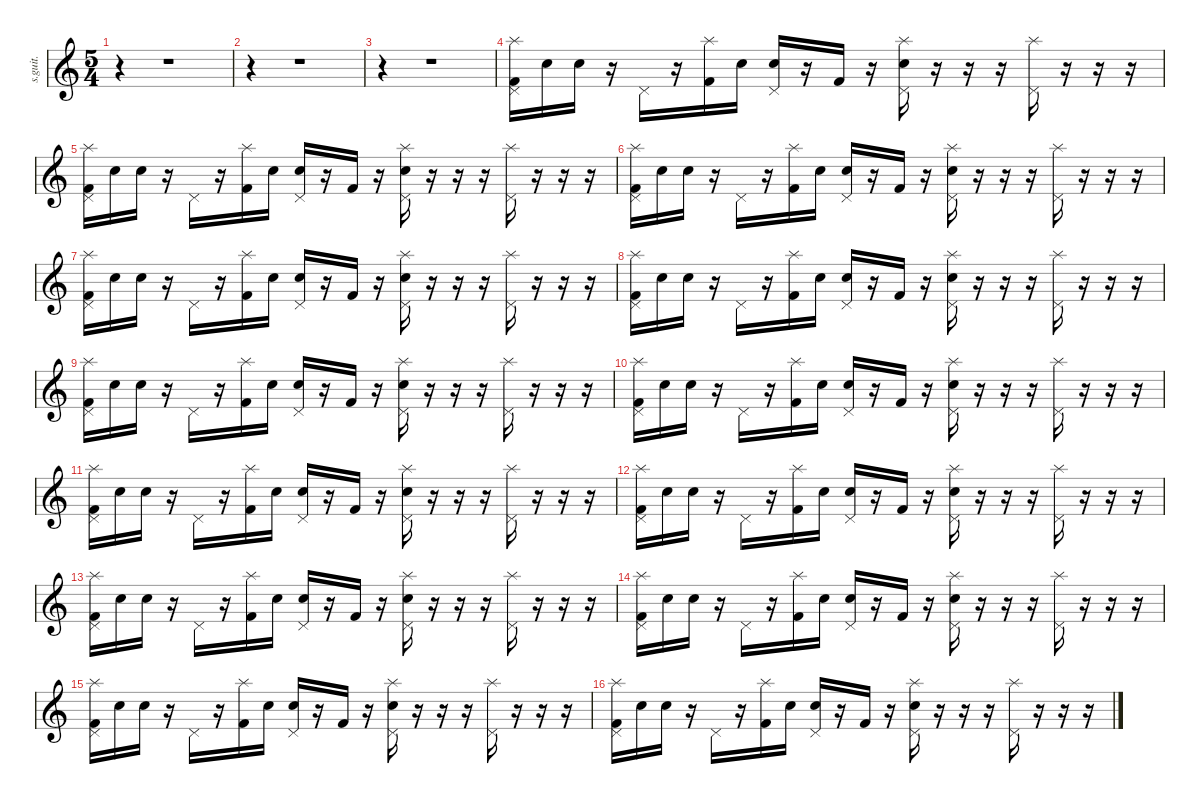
\defaultSystemsLayout 4
\hideDynamics
\bracketExtendMode nobrackets
\track ("Pete Riley" "s.guit.") {instrument percussion}
\staff {score}
\articulation defaults
\ts (5 4)
\tempo (152 hide)
\clef g2
\ks c
r.4{dy f} r.1 |
r.4 r.1 |
r.4 r.1 |
("Splash (hit)" "Pedal Hi-Hat (hit)" "Kick (hit) 2").16 "Snare (hit) 2".16{dy mp} "Snare (hit) 2".16{dy p} r.16 "Pedal Hi-Hat (hit)".16{dy mp} r.16 ("Splash (hit)" "Kick (hit) 2").16{dy f} "Snare (hit) 2".16{dy mp} ("Pedal Hi-Hat (hit)" "Snare (hit) 2").16 r.16 "Kick (hit) 2".16{dy mf} r.16 ("Splash (hit)" "Pedal Hi-Hat (hit)" "Snare (hit) 2").16{dy f} r.16 r.16 r.16 ("Splash (hit)" "Pedal Hi-Hat (hit)").16 r.16 r.16 r.16 |
("Splash (hit)" "Pedal Hi-Hat (hit)" "Kick (hit) 2").16 "Snare (hit) 2".16{dy mp} "Snare (hit) 2".16{dy p} r.16 "Pedal Hi-Hat (hit)".16{dy mp} r.16 ("Splash (hit)" "Kick (hit) 2").16{dy f} "Snare (hit) 2".16{dy mp} ("Pedal Hi-Hat (hit)" "Snare (hit) 2").16 r.16 "Kick (hit) 2".16{dy mf} r.16 ("Splash (hit)" "Pedal Hi-Hat (hit)" "Snare (hit) 2").16{dy f} r.16 r.16 r.16 ("Splash (hit)" "Pedal Hi-Hat (hit)").16 r.16 r.16 r.16 |
("Splash (hit)" "Pedal Hi-Hat (hit)" "Kick (hit) 2").16 "Snare (hit) 2".16{dy mp} "Snare (hit) 2".16{dy p} r.16 "Pedal Hi-Hat (hit)".16{dy mp} r.16 ("Splash (hit)" "Kick (hit) 2").16{dy f} "Snare (hit) 2".16{dy mp} ("Pedal Hi-Hat (hit)" "Snare (hit) 2").16 r.16 "Kick (hit) 2".16{dy mf} r.16 ("Splash (hit)" "Pedal Hi-Hat (hit)" "Snare (hit) 2").16{dy f} r.16 r.16 r.16 ("Splash (hit)" "Pedal Hi-Hat (hit)").16 r.16 r.16 r.16 |
("Splash (hit)" "Pedal Hi-Hat (hit)" "Kick (hit) 2").16 "Snare (hit) 2".16{dy mp} "Snare (hit) 2".16{dy p} r.16 "Pedal Hi-Hat (hit)".16{dy mp} r.16 ("Splash (hit)" "Kick (hit) 2").16{dy f} "Snare (hit) 2".16{dy mp} ("Pedal Hi-Hat (hit)" "Snare (hit) 2").16 r.16 "Kick (hit) 2".16{dy mf} r.16 ("Splash (hit)" "Pedal Hi-Hat (hit)" "Snare (hit) 2").16{dy f} r.16 r.16 r.16 ("Splash (hit)" "Pedal Hi-Hat (hit)").16 r.16 r.16 r.16 |
("Splash (hit)" "Pedal Hi-Hat (hit)" "Kick (hit) 2").16 "Snare (hit) 2".16{dy mp} "Snare (hit) 2".16{dy p} r.16 "Pedal Hi-Hat (hit)".16{dy mp} r.16 ("Splash (hit)" "Kick (hit) 2").16{dy f} "Snare (hit) 2".16{dy mp} ("Pedal Hi-Hat (hit)" "Snare (hit) 2").16 r.16 "Kick (hit) 2".16{dy mf} r.16 ("Splash (hit)" "Pedal Hi-Hat (hit)" "Snare (hit) 2").16{dy f} r.16 r.16 r.16 ("Splash (hit)" "Pedal Hi-Hat (hit)").16 r.16 r.16 r.16 |
("Splash (hit)" "Pedal Hi-Hat (hit)" "Kick (hit) 2").16 "Snare (hit) 2".16{dy mp} "Snare (hit) 2".16{dy p} r.16 "Pedal Hi-Hat (hit)".16{dy mp} r.16 ("Splash (hit)" "Kick (hit) 2").16{dy f} "Snare (hit) 2".16{dy mp} ("Pedal Hi-Hat (hit)" "Snare (hit) 2").16 r.16 "Kick (hit) 2".16{dy mf} r.16 ("Splash (hit)" "Pedal Hi-Hat (hit)" "Snare (hit) 2").16{dy f} r.16 r.16 r.16 ("Splash (hit)" "Pedal Hi-Hat (hit)").16 r.16 r.16 r.16 |
("Splash (hit)" "Pedal Hi-Hat (hit)" "Kick (hit) 2").16 "Snare (hit) 2".16{dy mp} "Snare (hit) 2".16{dy p} r.16 "Pedal Hi-Hat (hit)".16{dy mp} r.16 ("Splash (hit)" "Kick (hit) 2").16{dy f} "Snare (hit) 2".16{dy mp} ("Pedal Hi-Hat (hit)" "Snare (hit) 2").16 r.16 "Kick (hit) 2".16{dy mf} r.16 ("Splash (hit)" "Pedal Hi-Hat (hit)" "Snare (hit) 2").16{dy f} r.16 r.16 r.16 ("Splash (hit)" "Pedal Hi-Hat (hit)").16 r.16 r.16 r.16 |
("Splash (hit)" "Pedal Hi-Hat (hit)" "Kick (hit) 2").16 "Snare (hit) 2".16{dy mp} "Snare (hit) 2".16{dy p} r.16 "Pedal Hi-Hat (hit)".16{dy mp} r.16 ("Splash (hit)" "Kick (hit) 2").16{dy f} "Snare (hit) 2".16{dy mp} ("Pedal Hi-Hat (hit)" "Snare (hit) 2").16 r.16 "Kick (hit) 2".16{dy mf} r.16 ("Splash (hit)" "Pedal Hi-Hat (hit)" "Snare (hit) 2").16{dy f} r.16 r.16 r.16 ("Splash (hit)" "Pedal Hi-Hat (hit)").16 r.16 r.16 r.16 |
("Splash (hit)" "Pedal Hi-Hat (hit)" "Kick (hit) 2").16 "Snare (hit) 2".16{dy mp} "Snare (hit) 2".16{dy p} r.16 "Pedal Hi-Hat (hit)".16{dy mp} r.16 ("Splash (hit)" "Kick (hit) 2").16{dy f} "Snare (hit) 2".16{dy mp} ("Pedal Hi-Hat (hit)" "Snare (hit) 2").16 r.16 "Kick (hit) 2".16{dy mf} r.16 ("Splash (hit)" "Pedal Hi-Hat (hit)" "Snare (hit) 2").16{dy f} r.16 r.16 r.16 ("Splash (hit)" "Pedal Hi-Hat (hit)").16 r.16 r.16 r.16 |
("Splash (hit)" "Pedal Hi-Hat (hit)" "Kick (hit) 2").16 "Snare (hit) 2".16{dy mp} "Snare (hit) 2".16{dy p} r.16 "Pedal Hi-Hat (hit)".16{dy mp} r.16 ("Splash (hit)" "Kick (hit) 2").16{dy f} "Snare (hit) 2".16{dy mp} ("Pedal Hi-Hat (hit)" "Snare (hit) 2").16 r.16 "Kick (hit) 2".16{dy mf} r.16 ("Splash (hit)" "Pedal Hi-Hat (hit)" "Snare (hit) 2").16{dy f} r.16 r.16 r.16 ("Splash (hit)" "Pedal Hi-Hat (hit)").16 r.16 r.16 r.16 |
("Splash (hit)" "Pedal Hi-Hat (hit)" "Kick (hit) 2").16 "Snare (hit) 2".16{dy mp} "Snare (hit) 2".16{dy p} r.16 "Pedal Hi-Hat (hit)".16{dy mp} r.16 ("Splash (hit)" "Kick (hit) 2").16{dy f} "Snare (hit) 2".16{dy mp} ("Pedal Hi-Hat (hit)" "Snare (hit) 2").16 r.16 "Kick (hit) 2".16{dy mf} r.16 ("Splash (hit)" "Pedal Hi-Hat (hit)" "Snare (hit) 2").16{dy f} r.16 r.16 r.16 ("Splash (hit)" "Pedal Hi-Hat (hit)").16 r.16 r.16 r.16 |
("Splash (hit)" "Pedal Hi-Hat (hit)" "Kick (hit) 2").16 "Snare (hit) 2".16{dy mp} "Snare (hit) 2".16{dy p} r.16 "Pedal Hi-Hat (hit)".16{dy mp} r.16 ("Splash (hit)" "Kick (hit) 2").16{dy f} "Snare (hit) 2".16{dy mp} ("Pedal Hi-Hat (hit)" "Snare (hit) 2").16 r.16 "Kick (hit) 2".16{dy mf} r.16 ("Splash (hit)" "Pedal Hi-Hat (hit)" "Snare (hit) 2").16{dy f} r.16 r.16 r.16 ("Splash (hit)" "Pedal Hi-Hat (hit)").16 r.16 r.16 r.16 |
("Splash (hit)" "Pedal Hi-Hat (hit)" "Kick (hit) 2").16 "Snare (hit) 2".16{dy mp} "Snare (hit) 2".16{dy p} r.16 "Pedal Hi-Hat (hit)".16{dy mp} r.16 ("Splash (hit)" "Kick (hit) 2").16{dy f} "Snare (hit) 2".16{dy mp} ("Pedal Hi-Hat (hit)" "Snare (hit) 2").16 r.16 "Kick (hit) 2".16{dy mf} r.16 ("Splash (hit)" "Pedal Hi-Hat (hit)" "Snare (hit) 2").16{dy f} r.16 r.16 r.16 ("Splash (hit)" "Pedal Hi-Hat (hit)").16 r.16 r.16 r.16
